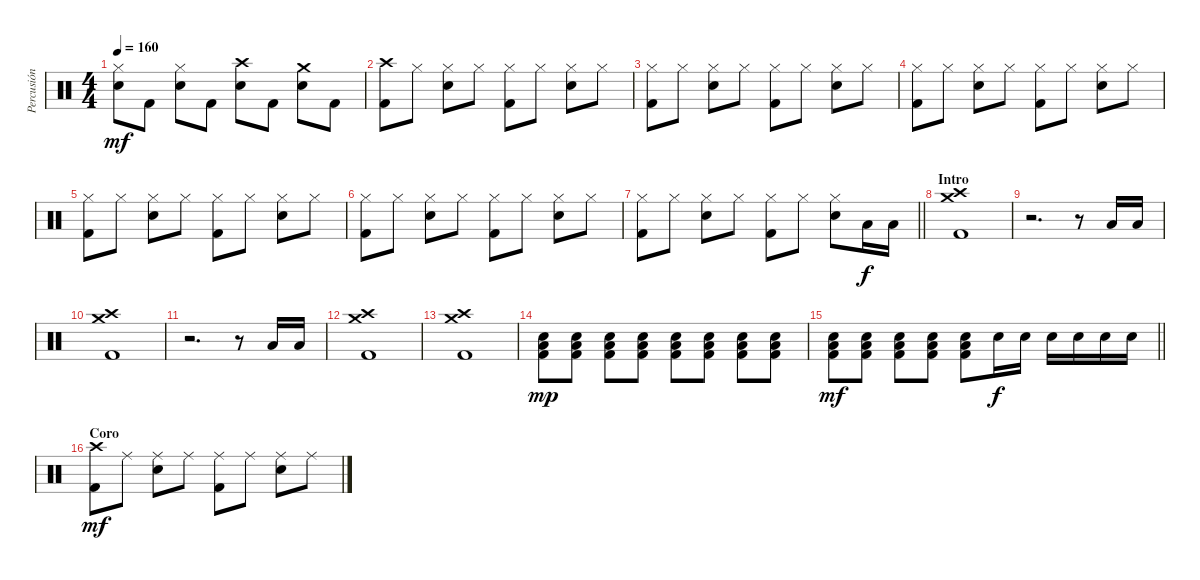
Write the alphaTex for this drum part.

\track ("Percusión" "Percusión") {instrument percussion}
\staff {score}
\articulation defaults
\ts (4 4)
\tempo 160
\clef neutral
\ks c
("Hi-Hat (closed)" "Electric Snare (hit)").8{dy mf} "Kick (hit) 2".8 ("Hi-Hat (closed)" "Electric Snare (hit)").8 "Kick (hit) 2".8 ("Crash high (hit)" "Electric Snare (hit)").8 "Kick (hit) 2".8 ("Crash medium (hit)" "Electric Snare (hit)").8 "Kick (hit) 2".8 |
("Crash high (hit)" "Kick (hit) 2").8 "Hi-Hat (closed)".8 ("Hi-Hat (closed)" "Electric Snare (hit)").8 "Hi-Hat (closed)".8 ("Hi-Hat (closed)" "Kick (hit) 2").8 "Hi-Hat (closed)".8 ("Hi-Hat (closed)" "Electric Snare (hit)").8 "Hi-Hat (closed)".8 |
("Hi-Hat (closed)" "Kick (hit) 2").8 "Hi-Hat (closed)".8 ("Hi-Hat (closed)" "Electric Snare (hit)").8 "Hi-Hat (closed)".8 ("Hi-Hat (closed)" "Kick (hit) 2").8 "Hi-Hat (closed)".8 ("Hi-Hat (closed)" "Electric Snare (hit)").8 "Hi-Hat (closed)".8 |
("Hi-Hat (closed)" "Kick (hit) 2").8 "Hi-Hat (closed)".8 ("Hi-Hat (closed)" "Electric Snare (hit)").8 "Hi-Hat (closed)".8 ("Hi-Hat (closed)" "Kick (hit) 2").8 "Hi-Hat (closed)".8 ("Hi-Hat (closed)" "Electric Snare (hit)").8 "Hi-Hat (closed)".8 |
("Hi-Hat (closed)" "Kick (hit) 2").8 "Hi-Hat (closed)".8 ("Hi-Hat (closed)" "Electric Snare (hit)").8 "Hi-Hat (closed)".8 ("Hi-Hat (closed)" "Kick (hit) 2").8 "Hi-Hat (closed)".8 ("Hi-Hat (closed)" "Electric Snare (hit)").8 "Hi-Hat (closed)".8 |
("Hi-Hat (closed)" "Kick (hit) 2").8 "Hi-Hat (closed)".8 ("Hi-Hat (closed)" "Electric Snare (hit)").8 "Hi-Hat (closed)".8 ("Hi-Hat (closed)" "Kick (hit) 2").8 "Hi-Hat (closed)".8 ("Hi-Hat (closed)" "Electric Snare (hit)").8 "Hi-Hat (closed)".8 |
\barLineRight lightlight
("Hi-Hat (closed)" "Kick (hit) 2").8 "Hi-Hat (closed)".8 ("Hi-Hat (closed)" "Electric Snare (hit)").8 "Hi-Hat (closed)".8 ("Hi-Hat (closed)" "Kick (hit) 2").8 "Hi-Hat (closed)".8 ("Hi-Hat (closed)" "Electric Snare (hit)").8 "Low Floor Tom (hit)".16{dy f} "Low Floor Tom (hit)".16 |
\section ("" "Intro")
("Crash medium (hit)" "Crash high (hit)" "Kick (hit) 2").1 |
r.2{d} r.8 "Low Floor Tom (hit)".16 "Low Floor Tom (hit)".16 |
("Crash medium (hit)" "Crash high (hit)" "Kick (hit) 2").1 |
r.2{d} r.8 "Low Floor Tom (hit)".16 "Low Floor Tom (hit)".16 |
("Crash medium (hit)" "Crash high (hit)" "Kick (hit) 2").1 |
("Crash medium (hit)" "Crash high (hit)" "Kick (hit) 2").1 |
("Electric Snare (hit)" "Low Floor Tom (hit)" "Kick (hit) 2").8{dy mp} ("Electric Snare (hit)" "Low Floor Tom (hit)" "Kick (hit) 2").8 ("Electric Snare (hit)" "Low Floor Tom (hit)" "Kick (hit) 2").8 ("Electric Snare (hit)" "Low Floor Tom (hit)" "Kick (hit) 2").8 ("Electric Snare (hit)" "Low Floor Tom (hit)" "Kick (hit) 2").8 ("Electric Snare (hit)" "Low Floor Tom (hit)" "Kick (hit) 2").8 ("Electric Snare (hit)" "Low Floor Tom (hit)" "Kick (hit) 2").8 ("Electric Snare (hit)" "Low Floor Tom (hit)" "Kick (hit) 2").8 |
\barLineRight lightlight
("Electric Snare (hit)" "Low Floor Tom (hit)" "Kick (hit) 2").8{dy mf} ("Electric Snare (hit)" "Low Floor Tom (hit)" "Kick (hit) 2").8 ("Electric Snare (hit)" "Low Floor Tom (hit)" "Kick (hit) 2").8 ("Electric Snare (hit)" "Low Floor Tom (hit)" "Kick (hit) 2").8 ("Electric Snare (hit)" "Low Floor Tom (hit)" "Kick (hit) 2").8 "Electric Snare (hit)".16{dy f} "Electric Snare (hit)".16 "Electric Snare (hit)".16 "Electric Snare (hit)".16 "Electric Snare (hit)".16 "Electric Snare (hit)".16 |
\section ("" "Coro")
("Crash high (hit)" "Kick (hit) 2").8{dy mf} "Ride (middle)".8 ("Ride (middle)" "Electric Snare (hit)").8 "Ride (middle)".8 ("Ride (middle)" "Kick (hit) 2").8 "Ride (middle)".8 ("Ride (middle)" "Electric Snare (hit)").8 "Ride (middle)".8
